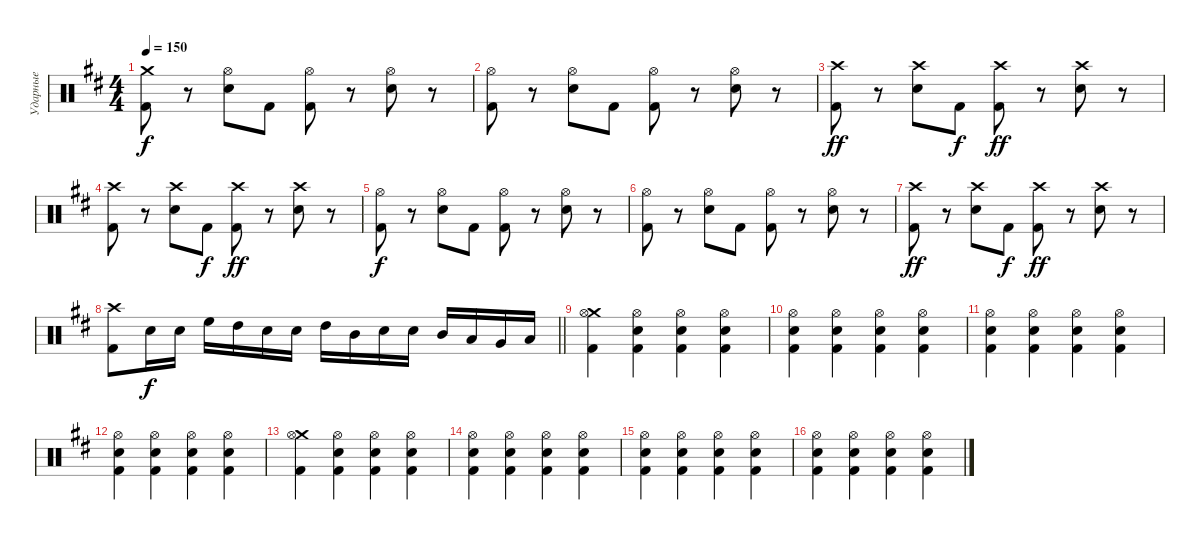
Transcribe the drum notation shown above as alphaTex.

\track ("Ударные" "Ударные") {instrument percussion}
\staff {score}
\articulation defaults
\ts (4 4)
\tempo 150
\clef neutral
\ks bminor
("Crash medium (hit)" "Kick (hit) 2").8{dy f} r.8 ("Electric Snare (hit)" "Hi-Hat (open)").8 "Kick (hit) 2".8 ("Kick (hit) 2" "Hi-Hat (open)").8 r.8 ("Electric Snare (hit)" "Hi-Hat (open)").8 r.8 |
("Kick (hit) 2" "Hi-Hat (open)").8 r.8 ("Electric Snare (hit)" "Hi-Hat (open)").8 "Kick (hit) 2".8 ("Kick (hit) 2" "Hi-Hat (open)").8 r.8 ("Electric Snare (hit)" "Hi-Hat (open)").8 r.8 |
("Crash high (hit)" "Kick (hit) 2").8{dy ff} r.8 ("Crash high (hit)" "Electric Snare (hit)").8 "Kick (hit) 2".8{dy f} ("Crash high (hit)" "Kick (hit) 2").8{dy ff} r.8 ("Crash high (hit)" "Electric Snare (hit)").8 r.8 |
("Crash high (hit)" "Kick (hit) 2").8 r.8 ("Crash high (hit)" "Electric Snare (hit)").8 "Kick (hit) 2".8{dy f} ("Crash high (hit)" "Kick (hit) 2").8{dy ff} r.8 ("Crash high (hit)" "Electric Snare (hit)").8 r.8 |
("Kick (hit) 2" "Hi-Hat (open)").8{dy f} r.8 ("Electric Snare (hit)" "Hi-Hat (open)").8 "Kick (hit) 2".8 ("Kick (hit) 2" "Hi-Hat (open)").8 r.8 ("Electric Snare (hit)" "Hi-Hat (open)").8 r.8 |
("Kick (hit) 2" "Hi-Hat (open)").8 r.8 ("Electric Snare (hit)" "Hi-Hat (open)").8 "Kick (hit) 2".8 ("Kick (hit) 2" "Hi-Hat (open)").8 r.8 ("Electric Snare (hit)" "Hi-Hat (open)").8 r.8 |
("Crash high (hit)" "Kick (hit) 2").8{dy ff} r.8 ("Crash high (hit)" "Electric Snare (hit)").8 "Kick (hit) 2".8{dy f} ("Crash high (hit)" "Kick (hit) 2").8{dy ff} r.8 ("Crash high (hit)" "Electric Snare (hit)").8 r.8 |
\barLineRight lightlight
("Crash high (hit)" "Kick (hit) 2").8 "Electric Snare (hit)".16{dy f} "Electric Snare (hit)".16 "High Floor Tom (hit)".16 "High Tom (hit)".16 "Electric Snare (hit)".16 "Electric Snare (hit)".16 "High Tom (hit)".16 "Mid Tom (hit)".16 "Electric Snare (hit)".16 "Electric Snare (hit)".16 "Mid Tom (hit)".16 "Low Tom (hit)".16 "Very Low Tom (hit)".16 "Low Floor Tom (hit)".16 |
("Crash medium (hit)" "Kick (hit) 2" "Hi-Hat (open)").4 ("Electric Snare (hit)" "Hi-Hat (open)" "Kick (hit) 2").4 ("Electric Snare (hit)" "Hi-Hat (open)" "Kick (hit) 2").4 ("Electric Snare (hit)" "Hi-Hat (open)" "Kick (hit) 2").4 |
("Electric Snare (hit)" "Hi-Hat (open)" "Kick (hit) 2").4 ("Electric Snare (hit)" "Hi-Hat (open)" "Kick (hit) 2").4 ("Electric Snare (hit)" "Hi-Hat (open)" "Kick (hit) 2").4 ("Electric Snare (hit)" "Hi-Hat (open)" "Kick (hit) 2").4 |
("Electric Snare (hit)" "Hi-Hat (open)" "Kick (hit) 2").4 ("Electric Snare (hit)" "Hi-Hat (open)" "Kick (hit) 2").4 ("Electric Snare (hit)" "Hi-Hat (open)" "Kick (hit) 2").4 ("Electric Snare (hit)" "Hi-Hat (open)" "Kick (hit) 2").4 |
("Electric Snare (hit)" "Hi-Hat (open)" "Kick (hit) 2").4 ("Electric Snare (hit)" "Hi-Hat (open)" "Kick (hit) 2").4 ("Electric Snare (hit)" "Hi-Hat (open)" "Kick (hit) 2").4 ("Electric Snare (hit)" "Hi-Hat (open)" "Kick (hit) 2").4 |
("Crash medium (hit)" "Kick (hit) 2" "Hi-Hat (open)").4 ("Electric Snare (hit)" "Hi-Hat (open)" "Kick (hit) 2").4 ("Electric Snare (hit)" "Hi-Hat (open)" "Kick (hit) 2").4 ("Electric Snare (hit)" "Hi-Hat (open)" "Kick (hit) 2").4 |
("Electric Snare (hit)" "Hi-Hat (open)" "Kick (hit) 2").4 ("Electric Snare (hit)" "Hi-Hat (open)" "Kick (hit) 2").4 ("Electric Snare (hit)" "Hi-Hat (open)" "Kick (hit) 2").4 ("Electric Snare (hit)" "Hi-Hat (open)" "Kick (hit) 2").4 |
("Electric Snare (hit)" "Hi-Hat (open)" "Kick (hit) 2").4 ("Electric Snare (hit)" "Hi-Hat (open)" "Kick (hit) 2").4 ("Electric Snare (hit)" "Hi-Hat (open)" "Kick (hit) 2").4 ("Electric Snare (hit)" "Hi-Hat (open)" "Kick (hit) 2").4 |
("Electric Snare (hit)" "Hi-Hat (open)" "Kick (hit) 2").4 ("Electric Snare (hit)" "Hi-Hat (open)" "Kick (hit) 2").4 ("Electric Snare (hit)" "Hi-Hat (open)" "Kick (hit) 2").4 ("Electric Snare (hit)" "Hi-Hat (open)" "Kick (hit) 2").4
